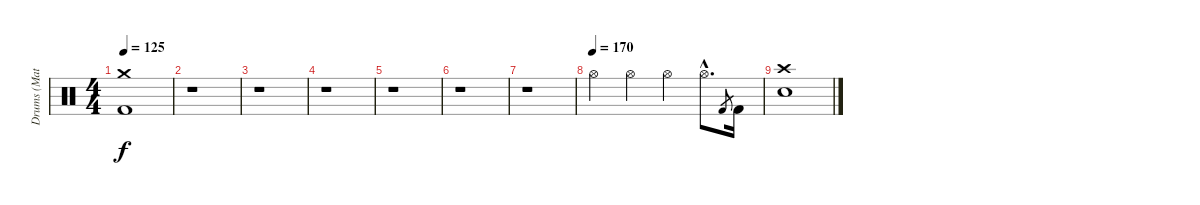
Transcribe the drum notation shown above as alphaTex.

\track ("Drums (Matt)" "Drums (Mat") {instrument percussion}
\staff {score}
\articulation defaults
\ts (4 4)
\tempo 125
\clef neutral
\ks c
("Crash medium (hit)" "Kick (hit) 2").1{dy f} |
r.1 |
r.1 |
r.1 |
r.1 |
r.1 |
r.1 |
\tempo (170)
"Hi-Hat (open)".4 "Hi-Hat (open)".4 "Hi-Hat (open)".4 "Hi-Hat (open)"{hac}.8{d} "Kick (hit) 2".8{gr} "Kick (hit) 2".16 |
("Crash high (hit)" "Snare (hit) 2").1
